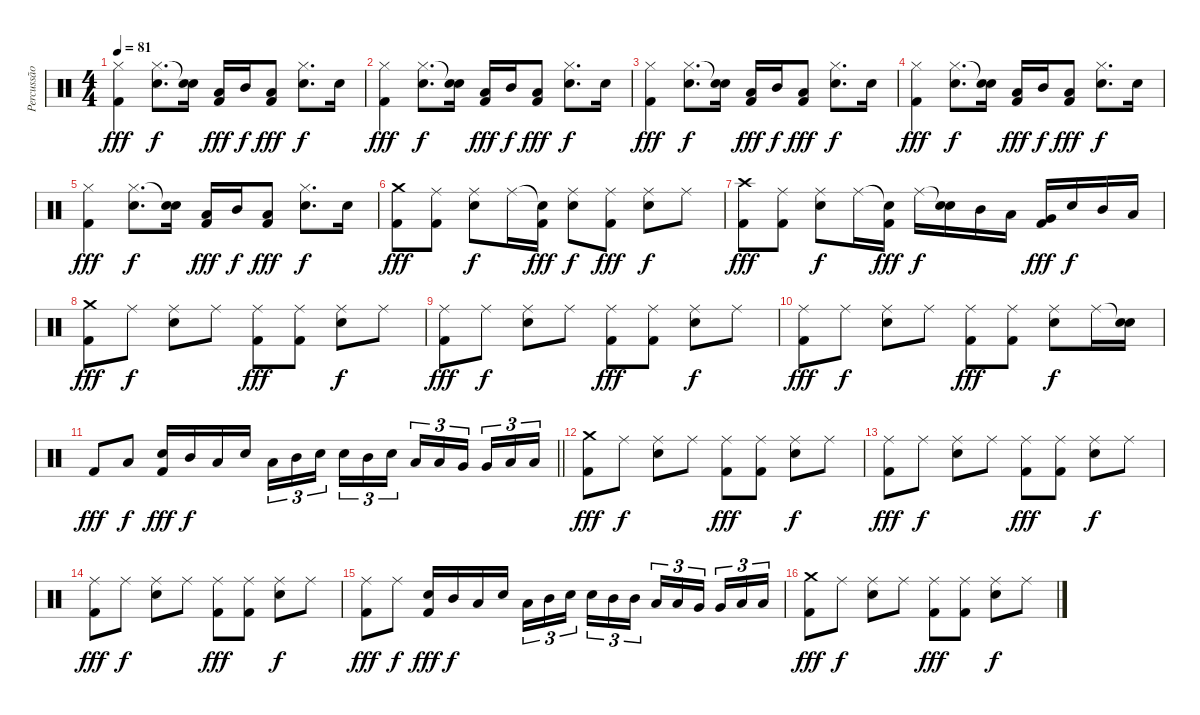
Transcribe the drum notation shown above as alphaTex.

\track ("Percussão" "Percussão") {instrument percussion}
\staff {score}
\articulation defaults
\ts (4 4)
\tempo 81
\clef neutral
\ks c
("Hi-Hat (closed)" "Kick (hit) 2").4{dy fff} ("Hi-Hat (closed)" "Snare (hit) 2").8{d dy f} ("Snare (hit)"{t} "Snare (hit) 2").16 ("Low Tom (hit)" "Kick (hit) 2").16{dy fff} "Mid Tom (hit)".16{dy f} ("Low Tom (hit)" "Kick (hit) 2").8{dy fff} ("Hi-Hat (closed)" "Snare (hit) 2").8{d dy f} "Snare (hit) 2".16 |
("Hi-Hat (closed)" "Kick (hit) 2").4{dy fff} ("Hi-Hat (closed)" "Snare (hit) 2").8{d dy f} ("Snare (hit)"{t} "Snare (hit) 2").16 ("Low Tom (hit)" "Kick (hit) 2").16{dy fff} "Mid Tom (hit)".16{dy f} ("Low Tom (hit)" "Kick (hit) 2").8{dy fff} ("Hi-Hat (closed)" "Snare (hit) 2").8{d dy f} "Snare (hit) 2".16 |
("Hi-Hat (closed)" "Kick (hit) 2").4{dy fff} ("Hi-Hat (closed)" "Snare (hit) 2").8{d dy f} ("Snare (hit)"{t} "Snare (hit) 2").16 ("Low Tom (hit)" "Kick (hit) 2").16{dy fff} "Mid Tom (hit)".16{dy f} ("Low Tom (hit)" "Kick (hit) 2").8{dy fff} ("Hi-Hat (closed)" "Snare (hit) 2").8{d dy f} "Snare (hit) 2".16 |
("Hi-Hat (closed)" "Kick (hit) 2").4{dy fff} ("Hi-Hat (closed)" "Snare (hit) 2").8{d dy f} ("Snare (hit)"{t} "Snare (hit) 2").16 ("Low Tom (hit)" "Kick (hit) 2").16{dy fff} "Mid Tom (hit)".16{dy f} ("Low Tom (hit)" "Kick (hit) 2").8{dy fff} ("Hi-Hat (closed)" "Snare (hit) 2").8{d dy f} "Snare (hit) 2".16 |
("Hi-Hat (closed)" "Kick (hit) 2").4{dy fff} ("Hi-Hat (closed)" "Snare (hit) 2").8{d dy f} ("Snare (hit)"{t} "Snare (hit) 2").16 ("Low Tom (hit)" "Kick (hit) 2").16{dy fff} "Mid Tom (hit)".16{dy f} ("Low Tom (hit)" "Kick (hit) 2").8{dy fff} ("Hi-Hat (closed)" "Snare (hit) 2").8{d dy f} "Snare (hit) 2".16 |
("Crash medium (hit)" "Kick (hit) 2").8{dy fff} ("Ride (middle)" "Kick (hit) 2").8 ("Ride (middle)" "Snare (hit) 2").8{dy f} "Ride (middle)".16 ("Snare (hit)"{t} "Kick (hit) 2").16{dy fff} ("Ride (middle)" "Snare (hit) 2").8{dy f} ("Ride (middle)" "Kick (hit) 2").8{dy fff} ("Ride (middle)" "Snare (hit) 2").8{dy f} "Ride (middle)".8 |
("Crash high (hit)" "Kick (hit) 2").8{dy fff} ("Ride (middle)" "Kick (hit) 2").8 ("Ride (middle)" "Snare (hit) 2").8{dy f} "Ride (middle)".16 ("Snare (hit)"{t} "Kick (hit) 2").16{dy fff} "Ride (middle)".16{dy f} ("Snare (hit)"{t} "Snare (hit) 2").16 "Mid Tom (hit)".16 "Low Tom (hit)".16 ("Very Low Tom (hit)" "Kick (hit) 2").16{dy fff} "Snare (hit) 2".16{dy f} "Mid Tom (hit)".16 "Low Tom (hit)".16 |
("Crash medium (hit)" "Kick (hit) 2").8{dy fff} "Ride (middle)".8{dy f} ("Ride (middle)" "Snare (hit) 2").8 "Ride (middle)".8 ("Ride (middle)" "Kick (hit) 2").8{dy fff} ("Ride (middle)" "Kick (hit) 2").8 ("Ride (middle)" "Snare (hit) 2").8{dy f} "Ride (middle)".8 |
("Ride (middle)" "Kick (hit) 2").8{dy fff} "Ride (middle)".8{dy f} ("Ride (middle)" "Snare (hit) 2").8 "Ride (middle)".8 ("Ride (middle)" "Kick (hit) 2").8{dy fff} ("Ride (middle)" "Kick (hit) 2").8 ("Ride (middle)" "Snare (hit) 2").8{dy f} "Ride (middle)".8 |
("Ride (middle)" "Kick (hit) 2").8{dy fff} "Ride (middle)".8{dy f} ("Ride (middle)" "Snare (hit) 2").8 "Ride (middle)".8 ("Ride (middle)" "Kick (hit) 2").8{dy fff} ("Ride (middle)" "Kick (hit) 2").8 ("Ride (middle)" "Snare (hit) 2").8{dy f} "Ride (middle)".16 ("Snare (hit)"{t} "Snare (hit) 2").16 |
\barLineRight lightlight "Kick (hit) 2".8{dy fff} "Low Tom (hit)".8{dy f}
("Snare (hit) 2" "Kick (hit) 2").16{dy fff} "Mid Tom (hit)".16{dy f} "Low Tom (hit)".16 "Snare (hit) 2".16 "Low Tom (hit)".16{tu (3 2)} "Mid Tom (hit)".16{tu (3 2)} "Snare (hit) 2".16{tu (3 2) beam splitsecondary} "Snare (hit) 2".16{tu (3 2)} "Mid Tom (hit)".16{tu (3 2)} "Snare (hit) 2".16{tu (3 2)} "Low Tom (hit)".16{tu (3 2)} "Low Tom (hit)".16{tu (3 2)} "Very Low Tom (hit)".16{tu (3 2) beam splitsecondary} "Very Low Tom (hit)".16{tu (3 2)} "Low Floor Tom (hit)".16{tu (3 2)} "Low Floor Tom (hit)".16{tu (3 2)} |
("Crash medium (hit)" "Kick (hit) 2").8{dy fff} "Ride (middle)".8{dy f} ("Ride (middle)" "Snare (hit) 2").8 "Ride (middle)".8 ("Ride (middle)" "Kick (hit) 2").8{dy fff} ("Ride (middle)" "Kick (hit) 2").8 ("Ride (middle)" "Snare (hit) 2").8{dy f} "Ride (middle)".8 |
("Ride (middle)" "Kick (hit) 2").8{dy fff} "Ride (middle)".8{dy f} ("Ride (middle)" "Snare (hit) 2").8 "Ride (middle)".8 ("Ride (middle)" "Kick (hit) 2").8{dy fff} ("Ride (middle)" "Kick (hit) 2").8 ("Ride (middle)" "Snare (hit) 2").8{dy f} "Ride (middle)".8 |
("Ride (middle)" "Kick (hit) 2").8{dy fff} "Ride (middle)".8{dy f} ("Ride (middle)" "Snare (hit) 2").8 "Ride (middle)".8 ("Ride (middle)" "Kick (hit) 2").8{dy fff} ("Ride (middle)" "Kick (hit) 2").8 ("Ride (middle)" "Snare (hit) 2").8{dy f} "Ride (middle)".8 |
("Ride (middle)" "Kick (hit) 2").8{dy fff} "Ride (middle)".8{dy f} ("Snare (hit) 2" "Kick (hit) 2").16{dy fff} "Mid Tom (hit)".16{dy f} "Low Tom (hit)".16 "Snare (hit) 2".16 "Low Tom (hit)".16{tu (3 2)} "Mid Tom (hit)".16{tu (3 2)} "Snare (hit) 2".16{tu (3 2) beam splitsecondary} "Snare (hit) 2".16{tu (3 2)} "Mid Tom (hit)".16{tu (3 2)} "Mid Tom (hit)".16{tu (3 2)} "Low Tom (hit)".16{tu (3 2)} "Low Tom (hit)".16{tu (3 2)} "Very Low Tom (hit)".16{tu (3 2) beam splitsecondary} "Very Low Tom (hit)".16{tu (3 2)} "Low Floor Tom (hit)".16{tu (3 2)} "Low Floor Tom (hit)".16{tu (3 2)} |
("Crash medium (hit)" "Kick (hit) 2").8{dy fff} "Ride (middle)".8{dy f} ("Ride (middle)" "Snare (hit) 2").8 "Ride (middle)".8 ("Ride (middle)" "Kick (hit) 2").8{dy fff} ("Ride (middle)" "Kick (hit) 2").8 ("Ride (middle)" "Snare (hit) 2").8{dy f} "Ride (middle)".8
